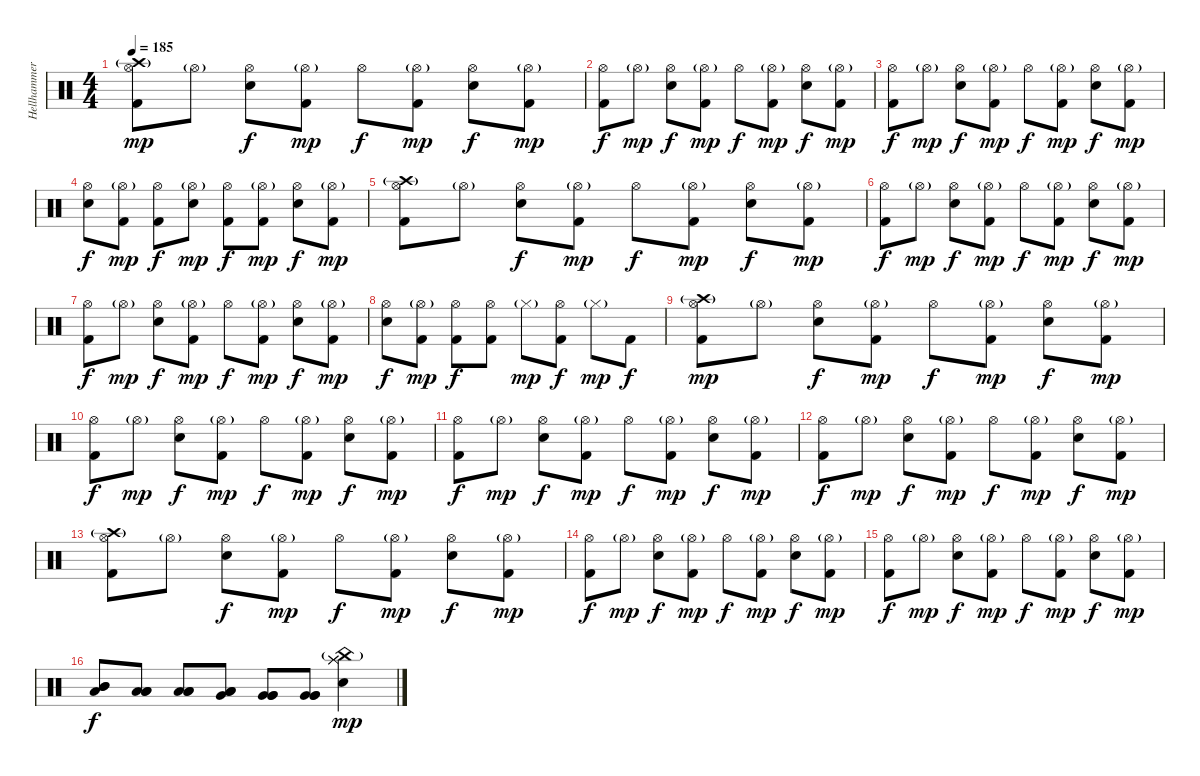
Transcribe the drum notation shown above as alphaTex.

\track ("Hellhammer" "Hellhammer") {instrument percussion}
\staff {score}
\articulation defaults
\ts (4 4)
\tempo 185
\clef neutral
\ks c
("Kick (hit) 2" "Hi-Hat (open)" "Crash high (hit)"{g}).8{dy mp} "Hi-Hat (open)"{g}.8 ("Electric Snare (hit)" "Hi-Hat (open)").8{dy f} ("Kick (hit) 2" "Hi-Hat (open)"{g}).8{dy mp} "Hi-Hat (open)".8{dy f} ("Kick (hit) 2" "Hi-Hat (open)"{g}).8{dy mp} ("Electric Snare (hit)" "Hi-Hat (open)").8{dy f} ("Kick (hit) 2" "Hi-Hat (open)"{g}).8{dy mp} |
("Kick (hit) 2" "Hi-Hat (open)").8{dy f} "Hi-Hat (open)"{g}.8{dy mp} ("Electric Snare (hit)" "Hi-Hat (open)").8{dy f} ("Kick (hit) 2" "Hi-Hat (open)"{g}).8{dy mp} "Hi-Hat (open)".8{dy f} ("Kick (hit) 2" "Hi-Hat (open)"{g}).8{dy mp} ("Electric Snare (hit)" "Hi-Hat (open)").8{dy f} ("Kick (hit) 2" "Hi-Hat (open)"{g}).8{dy mp} |
("Kick (hit) 2" "Hi-Hat (open)").8{dy f} "Hi-Hat (open)"{g}.8{dy mp} ("Electric Snare (hit)" "Hi-Hat (open)").8{dy f} ("Kick (hit) 2" "Hi-Hat (open)"{g}).8{dy mp} "Hi-Hat (open)".8{dy f} ("Kick (hit) 2" "Hi-Hat (open)"{g}).8{dy mp} ("Electric Snare (hit)" "Hi-Hat (open)").8{dy f} ("Kick (hit) 2" "Hi-Hat (open)"{g}).8{dy mp} |
("Electric Snare (hit)" "Hi-Hat (open)").8{dy f} ("Kick (hit) 2" "Hi-Hat (open)"{g}).8{dy mp} ("Kick (hit) 2" "Hi-Hat (open)").8{dy f} ("Electric Snare (hit)" "Hi-Hat (open)"{g}).8{dy mp} ("Kick (hit) 2" "Hi-Hat (open)").8{dy f} ("Kick (hit) 2" "Hi-Hat (open)"{g}).8{dy mp} ("Electric Snare (hit)" "Hi-Hat (open)").8{dy f} ("Kick (hit) 2" "Hi-Hat (open)"{g}).8{dy mp} |
("Kick (hit) 2" "Hi-Hat (open)" "Crash high (hit)"{g}).8 "Hi-Hat (open)"{g}.8 ("Electric Snare (hit)" "Hi-Hat (open)").8{dy f} ("Kick (hit) 2" "Hi-Hat (open)"{g}).8{dy mp} "Hi-Hat (open)".8{dy f} ("Kick (hit) 2" "Hi-Hat (open)"{g}).8{dy mp} ("Electric Snare (hit)" "Hi-Hat (open)").8{dy f} ("Kick (hit) 2" "Hi-Hat (open)"{g}).8{dy mp} |
("Kick (hit) 2" "Hi-Hat (open)").8{dy f} "Hi-Hat (open)"{g}.8{dy mp} ("Electric Snare (hit)" "Hi-Hat (open)").8{dy f} ("Kick (hit) 2" "Hi-Hat (open)"{g}).8{dy mp} "Hi-Hat (open)".8{dy f} ("Kick (hit) 2" "Hi-Hat (open)"{g}).8{dy mp} ("Electric Snare (hit)" "Hi-Hat (open)").8{dy f} ("Kick (hit) 2" "Hi-Hat (open)"{g}).8{dy mp} |
("Kick (hit) 2" "Hi-Hat (open)").8{dy f} "Hi-Hat (open)"{g}.8{dy mp} ("Electric Snare (hit)" "Hi-Hat (open)").8{dy f} ("Kick (hit) 2" "Hi-Hat (open)"{g}).8{dy mp} "Hi-Hat (open)".8{dy f} ("Kick (hit) 2" "Hi-Hat (open)"{g}).8{dy mp} ("Electric Snare (hit)" "Hi-Hat (open)").8{dy f} ("Kick (hit) 2" "Hi-Hat (open)"{g}).8{dy mp} |
("Electric Snare (hit)" "Hi-Hat (open)").8{dy f} ("Kick (hit) 2" "Hi-Hat (open)"{g}).8{dy mp} ("Kick (hit) 2" "Hi-Hat (open)").8{dy f} ("Kick (hit) 2" "Hi-Hat (open)").8 "Hi-Hat (closed)"{g}.8{dy mp} ("Kick (hit) 2" "Hi-Hat (open)").8{dy f} "Hi-Hat (closed)"{g}.8{dy mp} "Kick (hit) 2".8{dy f} |
("Kick (hit) 2" "Hi-Hat (open)" "Crash high (hit)"{g}).8{dy mp} "Hi-Hat (open)"{g}.8 ("Electric Snare (hit)" "Hi-Hat (open)").8{dy f} ("Kick (hit) 2" "Hi-Hat (open)"{g}).8{dy mp} "Hi-Hat (open)".8{dy f} ("Kick (hit) 2" "Hi-Hat (open)"{g}).8{dy mp} ("Electric Snare (hit)" "Hi-Hat (open)").8{dy f} ("Kick (hit) 2" "Hi-Hat (open)"{g}).8{dy mp} |
("Kick (hit) 2" "Hi-Hat (open)").8{dy f} "Hi-Hat (open)"{g}.8{dy mp} ("Electric Snare (hit)" "Hi-Hat (open)").8{dy f} ("Kick (hit) 2" "Hi-Hat (open)"{g}).8{dy mp} "Hi-Hat (open)".8{dy f} ("Kick (hit) 2" "Hi-Hat (open)"{g}).8{dy mp} ("Electric Snare (hit)" "Hi-Hat (open)").8{dy f} ("Kick (hit) 2" "Hi-Hat (open)"{g}).8{dy mp} |
("Kick (hit) 2" "Hi-Hat (open)").8{dy f} "Hi-Hat (open)"{g}.8{dy mp} ("Electric Snare (hit)" "Hi-Hat (open)").8{dy f} ("Kick (hit) 2" "Hi-Hat (open)"{g}).8{dy mp} "Hi-Hat (open)".8{dy f} ("Kick (hit) 2" "Hi-Hat (open)"{g}).8{dy mp} ("Electric Snare (hit)" "Hi-Hat (open)").8{dy f} ("Kick (hit) 2" "Hi-Hat (open)"{g}).8{dy mp} |
("Kick (hit) 2" "Hi-Hat (open)").8{dy f} "Hi-Hat (open)"{g}.8{dy mp} ("Electric Snare (hit)" "Hi-Hat (open)").8{dy f} ("Kick (hit) 2" "Hi-Hat (open)"{g}).8{dy mp} "Hi-Hat (open)".8{dy f} ("Kick (hit) 2" "Hi-Hat (open)"{g}).8{dy mp} ("Electric Snare (hit)" "Hi-Hat (open)").8{dy f} ("Kick (hit) 2" "Hi-Hat (open)"{g}).8{dy mp} |
("Kick (hit) 2" "Hi-Hat (open)" "Crash high (hit)"{g}).8 "Hi-Hat (open)"{g}.8 ("Electric Snare (hit)" "Hi-Hat (open)").8{dy f} ("Kick (hit) 2" "Hi-Hat (open)"{g}).8{dy mp} "Hi-Hat (open)".8{dy f} ("Kick (hit) 2" "Hi-Hat (open)"{g}).8{dy mp} ("Electric Snare (hit)" "Hi-Hat (open)").8{dy f} ("Kick (hit) 2" "Hi-Hat (open)"{g}).8{dy mp} |
("Kick (hit) 2" "Hi-Hat (open)").8{dy f} "Hi-Hat (open)"{g}.8{dy mp} ("Electric Snare (hit)" "Hi-Hat (open)").8{dy f} ("Kick (hit) 2" "Hi-Hat (open)"{g}).8{dy mp} "Hi-Hat (open)".8{dy f} ("Kick (hit) 2" "Hi-Hat (open)"{g}).8{dy mp} ("Electric Snare (hit)" "Hi-Hat (open)").8{dy f} ("Kick (hit) 2" "Hi-Hat (open)"{g}).8{dy mp} |
("Kick (hit) 2" "Hi-Hat (open)").8{dy f} "Hi-Hat (open)"{g}.8{dy mp} ("Electric Snare (hit)" "Hi-Hat (open)").8{dy f} ("Kick (hit) 2" "Hi-Hat (open)"{g}).8{dy mp} "Hi-Hat (open)".8{dy f} ("Kick (hit) 2" "Hi-Hat (open)"{g}).8{dy mp} ("Electric Snare (hit)" "Hi-Hat (open)").8{dy f} ("Kick (hit) 2" "Hi-Hat (open)"{g}).8{dy mp} |
("Mid Tom (hit)" "Mid Tom (hit)" "Low Tom (hit)").8{dy f} ("Low Tom (hit)" "Low Tom (hit)" "Low Tom (hit)").8 ("Low Tom (hit)" "Low Tom (hit)" "Low Tom (hit)").8 ("Low Tom (hit)" "Low Tom (hit)" "Very Low Tom (hit)").8 ("Very Low Tom (hit)" "Very Low Tom (hit)" "Very Low Tom (hit)").8 ("Very Low Tom (hit)" "Very Low Tom (hit)" "Very Low Tom (hit)").8 ("Electric Snare (hit)" "Splash (hit)" "Splash (hit)" "China (hit)"{g} "Splash (hit)").4{dy mp}
